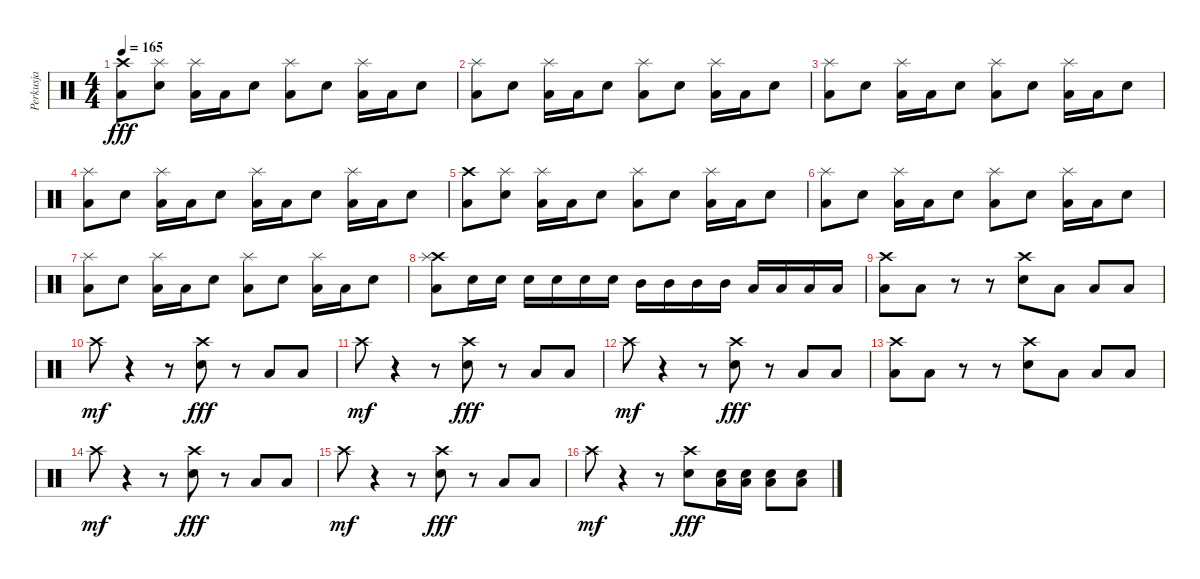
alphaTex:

\track ("Perkusja" "Perkusja") {instrument percussion}
\staff {score}
\articulation defaults
\ts (4 4)
\tempo 165
\clef neutral
\ks c
("Crash high (hit)" "Low Tom (hit)").8{dy fff} ("Splash (hit)" "Electric Snare (hit)").8 ("Splash (hit)" "Low Tom (hit)").16 "Low Tom (hit)".16 "Electric Snare (hit)".8 ("Splash (hit)" "Low Tom (hit)").8 "Electric Snare (hit)".8 ("Splash (hit)" "Low Tom (hit)").16 "Low Tom (hit)".16 "Electric Snare (hit)".8 |
("Splash (hit)" "Low Tom (hit)").8 "Electric Snare (hit)".8 ("Splash (hit)" "Low Tom (hit)").16 "Low Tom (hit)".16 "Electric Snare (hit)".8 ("Splash (hit)" "Low Tom (hit)").8 "Electric Snare (hit)".8 ("Splash (hit)" "Low Tom (hit)").16 "Low Tom (hit)".16 "Electric Snare (hit)".8 |
("Splash (hit)" "Low Tom (hit)").8 "Electric Snare (hit)".8 ("Splash (hit)" "Low Tom (hit)").16 "Low Tom (hit)".16 "Electric Snare (hit)".8 ("Splash (hit)" "Low Tom (hit)").8 "Electric Snare (hit)".8 ("Splash (hit)" "Low Tom (hit)").16 "Low Tom (hit)".16 "Electric Snare (hit)".8 |
("Splash (hit)" "Low Tom (hit)").8 "Electric Snare (hit)".8 ("Splash (hit)" "Low Tom (hit)").16 "Low Tom (hit)".16 "Electric Snare (hit)".8 ("Splash (hit)" "Low Tom (hit)").16 "Low Tom (hit)".16 "Electric Snare (hit)".8 ("Splash (hit)" "Low Tom (hit)").16 "Low Tom (hit)".16 "Electric Snare (hit)".8 |
("Crash high (hit)" "Low Tom (hit)").8 ("Splash (hit)" "Electric Snare (hit)").8 ("Splash (hit)" "Low Tom (hit)").16 "Low Tom (hit)".16 "Electric Snare (hit)".8 ("Splash (hit)" "Low Tom (hit)").8 "Electric Snare (hit)".8 ("Splash (hit)" "Low Tom (hit)").16 "Low Tom (hit)".16 "Electric Snare (hit)".8 |
("Splash (hit)" "Low Tom (hit)").8 "Electric Snare (hit)".8 ("Splash (hit)" "Low Tom (hit)").16 "Low Tom (hit)".16 "Electric Snare (hit)".8 ("Splash (hit)" "Low Tom (hit)").8 "Electric Snare (hit)".8 ("Splash (hit)" "Low Tom (hit)").16 "Low Tom (hit)".16 "Electric Snare (hit)".8 |
("Splash (hit)" "Low Tom (hit)").8 "Electric Snare (hit)".8 ("Splash (hit)" "Low Tom (hit)").16 "Low Tom (hit)".16 "Electric Snare (hit)".8 ("Splash (hit)" "Low Tom (hit)").8 "Electric Snare (hit)".8 ("Splash (hit)" "Low Tom (hit)").16 "Low Tom (hit)".16 "Electric Snare (hit)".8 |
("Crash high (hit)" "Splash (hit)" "Low Tom (hit)").8 "Electric Snare (hit)".16 "Electric Snare (hit)".16 "Electric Snare (hit)".16 "Electric Snare (hit)".16 "Electric Snare (hit)".16 "Electric Snare (hit)".16 "Mid Tom (hit)".16 "Mid Tom (hit)".16 "Mid Tom (hit)".16 "Mid Tom (hit)".16 "Low Tom (hit)".16 "Low Tom (hit)".16 "Low Tom (hit)".16 "Low Tom (hit)".16 |
("Crash high (hit)" "Low Tom (hit)").8 "Low Tom (hit)".8 r.8 r.8 ("Crash high (hit)" "Electric Snare (hit)").8 "Low Tom (hit)".8 "Low Tom (hit)".8 "Low Tom (hit)".8 |
"Crash high (hit)".8{dy mf} r.4 r.8 ("Crash high (hit)" "Electric Snare (hit)").8{dy fff} r.8 "Low Tom (hit)".8 "Low Tom (hit)".8 |
"Crash high (hit)".8{dy mf} r.4 r.8 ("Crash high (hit)" "Electric Snare (hit)").8{dy fff} r.8 "Low Tom (hit)".8 "Low Tom (hit)".8 |
"Crash high (hit)".8{dy mf} r.4 r.8 ("Crash high (hit)" "Electric Snare (hit)").8{dy fff} r.8 "Low Tom (hit)".8 "Low Tom (hit)".8 |
("Crash high (hit)" "Low Tom (hit)").8 "Low Tom (hit)".8 r.8 r.8 ("Crash high (hit)" "Electric Snare (hit)").8 "Low Tom (hit)".8 "Low Tom (hit)".8 "Low Tom (hit)".8 |
"Crash high (hit)".8{dy mf} r.4 r.8 ("Crash high (hit)" "Electric Snare (hit)").8{dy fff} r.8 "Low Tom (hit)".8 "Low Tom (hit)".8 |
"Crash high (hit)".8{dy mf} r.4 r.8 ("Crash high (hit)" "Electric Snare (hit)").8{dy fff} r.8 "Low Tom (hit)".8 "Low Tom (hit)".8 |
"Crash high (hit)".8{dy mf} r.4 r.8 ("Crash high (hit)" "Electric Snare (hit)").8{dy fff} ("Electric Snare (hit)" "Low Tom (hit)").16 ("Electric Snare (hit)" "Low Tom (hit)").16 ("Electric Snare (hit)" "Low Tom (hit)").8 ("Electric Snare (hit)" "Low Tom (hit)").8
